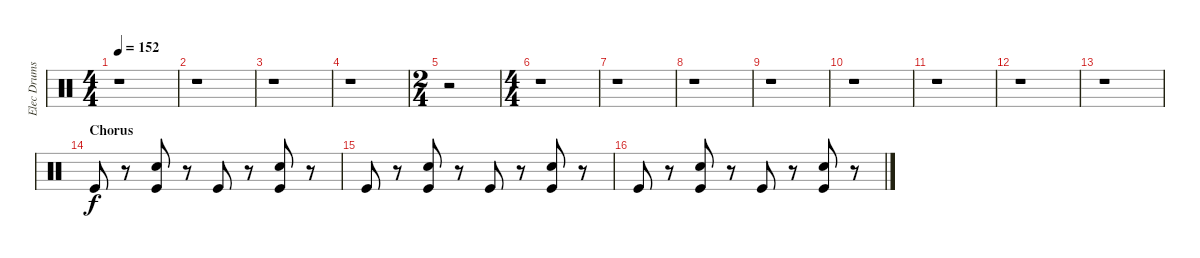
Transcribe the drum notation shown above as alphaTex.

\track ("Elec Drums" "Elec Drums") {instrument percussion}
\staff {score}
\articulation defaults
\ts (4 4)
\tempo 152
\clef neutral
\ks c
r.1{dy fff} |
r.1 |
r.1 |
r.1 |
\ts (2 4)
r.2 |
\ts (4 4)
r.1 |
r.1 |
r.1 |
r.1 |
r.1 |
r.1 |
r.1 |
r.1 |
\section ("" "Chorus")
"Kick (hit)".8{dy f} r.8 ("Electric Snare (hit)" "Kick (hit)").8 r.8 "Kick (hit)".8 r.8 ("Electric Snare (hit)" "Kick (hit)").8 r.8 |
"Kick (hit)".8 r.8 ("Electric Snare (hit)" "Kick (hit)").8 r.8 "Kick (hit)".8 r.8 ("Electric Snare (hit)" "Kick (hit)").8 r.8 |
"Kick (hit)".8 r.8 ("Electric Snare (hit)" "Kick (hit)").8 r.8 "Kick (hit)".8 r.8 ("Electric Snare (hit)" "Kick (hit)").8 r.8
